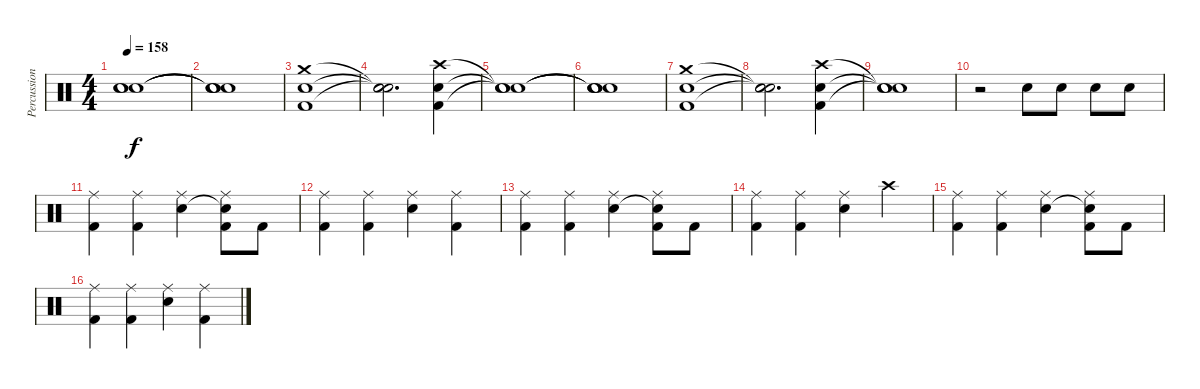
\track ("Percussions" "Percussion") {instrument percussion}
\staff {score}
\articulation defaults
\ts (4 4)
\tempo 158
\clef neutral
\ks c
("Snare (hit)"{t} "Snare (hit)"{t} "Snare (hit)"{t}).1{dy f} |
("Snare (hit)"{t} "Snare (hit)"{t} "Snare (hit)"{t} "Snare (hit)").1 |
("Crash medium (hit)" "Electric Snare (hit)" "Kick (hit) 2").1 |
("Snare (hit)"{t} "Snare (hit)"{t} "Snare (hit)"{t}).2{d} ("Crash high (hit)" "Electric Snare (hit)" "Kick (hit) 2").4 |
("Snare (hit)"{t} "Snare (hit)"{t} "Snare (hit)"{t}).1 |
("Snare (hit)"{t} "Snare (hit)"{t} "Snare (hit)"{t} "Snare (hit)").1 |
("Crash medium (hit)" "Electric Snare (hit)" "Kick (hit) 2").1 |
("Snare (hit)"{t} "Snare (hit)"{t} "Snare (hit)"{t}).2{d} ("Crash high (hit)" "Electric Snare (hit)" "Kick (hit) 2").4 |
("Snare (hit)"{t} "Snare (hit)"{t} "Snare (hit)"{t}).1 |
r.2 "Electric Snare (hit)".8 "Electric Snare (hit)".8 "Electric Snare (hit)".8 "Electric Snare (hit)".8 |
("Ride (middle)" "Kick (hit) 2").4 ("Ride (middle)" "Kick (hit) 2").4 ("Ride (middle)" "Electric Snare (hit)").4 ("Ride (middle)" "Snare (hit)"{t} "Kick (hit) 2").8 "Kick (hit) 2".8 |
("Ride (middle)" "Kick (hit) 2").4 ("Ride (middle)" "Kick (hit) 2").4 ("Ride (middle)" "Electric Snare (hit)").4 ("Ride (middle)" "Kick (hit) 2").4 |
("Ride (middle)" "Kick (hit) 2").4 ("Ride (middle)" "Kick (hit) 2").4 ("Ride (middle)" "Electric Snare (hit)").4 ("Ride (middle)" "Snare (hit)"{t} "Kick (hit) 2").8 "Kick (hit) 2".8 |
("Ride (middle)" "Kick (hit) 2").4 ("Ride (middle)" "Kick (hit) 2").4 ("Ride (middle)" "Electric Snare (hit)").4 "Crash high (hit)".4 |
("Ride (middle)" "Kick (hit) 2").4 ("Ride (middle)" "Kick (hit) 2").4 ("Ride (middle)" "Electric Snare (hit)").4 ("Ride (middle)" "Snare (hit)"{t} "Kick (hit) 2").8 "Kick (hit) 2".8 |
("Ride (middle)" "Kick (hit) 2").4 ("Ride (middle)" "Kick (hit) 2").4 ("Ride (middle)" "Electric Snare (hit)").4 ("Ride (middle)" "Kick (hit) 2").4
